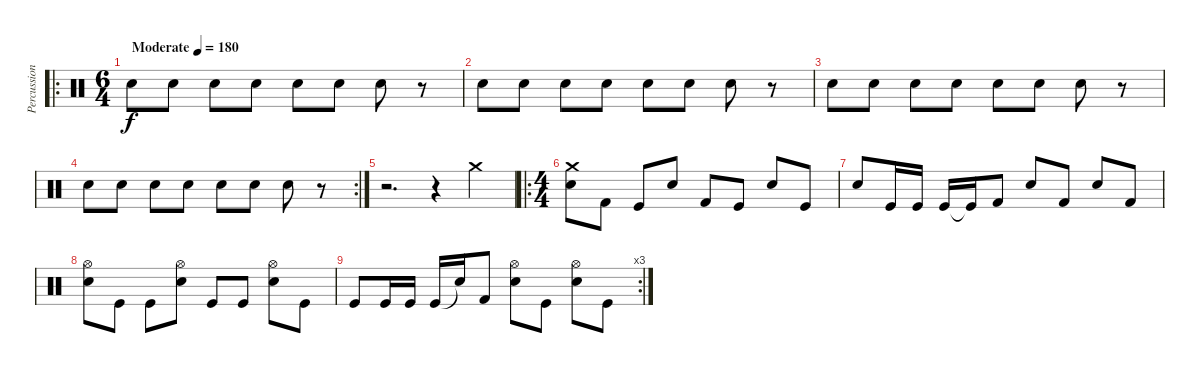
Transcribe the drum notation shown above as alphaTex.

\track ("Percussion" "Percussion") {instrument percussion}
\staff {score}
\articulation defaults
\ro
\ts (6 4)
\tempo (180 "Moderate")
\clef neutral
\ks c "Snare (hit) 2".8{dy f} "Snare (hit) 2".8 "Snare (hit) 2".8 "Snare (hit) 2".8 "Snare (hit) 2".8 "Snare (hit) 2".8 "Snare (hit) 2".8
r.8 |
"Snare (hit) 2".8 "Snare (hit) 2".8 "Snare (hit) 2".8 "Snare (hit) 2".8 "Snare (hit) 2".8 "Snare (hit) 2".8 "Snare (hit) 2".8 r.8 |
"Snare (hit) 2".8 "Snare (hit) 2".8 "Snare (hit) 2".8 "Snare (hit) 2".8 "Snare (hit) 2".8 "Snare (hit) 2".8 "Snare (hit) 2".8 r.8 |
\rc 2 "Snare (hit) 2".8 "Snare (hit) 2".8 "Snare (hit) 2".8 "Snare (hit) 2".8 "Snare (hit) 2".8 "Snare (hit) 2".8 "Snare (hit) 2".8
r.8 |
r.2{d} r.4 "Crash medium (hit)".4 |
\ro
\ts (4 4)
("Crash medium (hit)" "Snare (hit) 2").8 "Kick (hit) 2".8 "Kick (hit)".8 "Snare (hit) 2".8 "Kick (hit) 2".8 "Kick (hit)".8 "Snare (hit) 2".8 "Kick (hit)".8 |
"Snare (hit) 2".8 "Kick (hit)".16 "Kick (hit)".16 "Kick (hit)".16 "Kick (hit)"{t}.16 "Kick (hit) 2".8 "Snare (hit) 2".8 "Kick (hit) 2".8 "Snare (hit) 2".8 "Kick (hit) 2".8 |
("Hi-Hat (open)" "Snare (hit) 2").8 "Kick (hit)".8 "Kick (hit)".8 ("Hi-Hat (open)" "Snare (hit) 2").8 "Kick (hit)".8 "Kick (hit)".8 ("Hi-Hat (open)" "Snare (hit) 2").8 "Kick (hit)".8 |
\rc 3 "Kick (hit)".8 "Kick (hit)".16 "Kick (hit)".16 "Kick (hit)".16 "Snare (hit)"{t}.16 "Kick (hit) 2".8
("Hi-Hat (open)" "Snare (hit) 2").8 "Kick (hit)".8 ("Hi-Hat (open)" "Snare (hit) 2").8 "Kick (hit)".8
